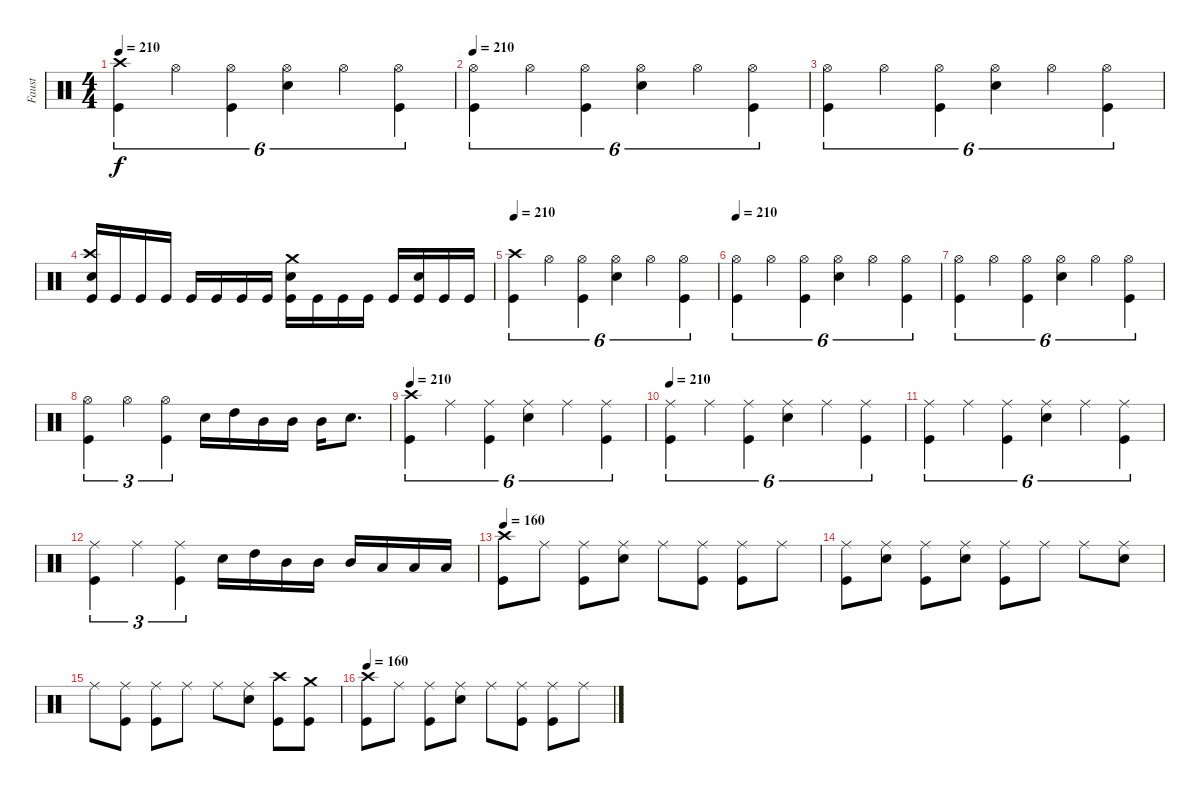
\track ("Faust" "Faust") {instrument percussion}
\staff {score}
\articulation defaults
\ts (4 4)
\tempo 210
\clef neutral
\ks c
("Kick (hit)" "Crash high (hit)").4{tu (6 4) dy f} "Hi-Hat (open)".4{tu (6 4)} ("Kick (hit)" "Hi-Hat (open)").4{tu (6 4)} ("Snare (hit) 2" "Hi-Hat (open)").4{tu (6 4)} "Hi-Hat (open)".4{tu (6 4)} ("Kick (hit)" "Hi-Hat (open)").4{tu (6 4)} |
\tempo 210
("Kick (hit)" "Hi-Hat (open)").4{tu (6 4)} "Hi-Hat (open)".4{tu (6 4)} ("Kick (hit)" "Hi-Hat (open)").4{tu (6 4)} ("Snare (hit) 2" "Hi-Hat (open)").4{tu (6 4)} "Hi-Hat (open)".4{tu (6 4)} ("Kick (hit)" "Hi-Hat (open)").4{tu (6 4)} |
("Kick (hit)" "Hi-Hat (open)").4{tu (6 4)} "Hi-Hat (open)".4{tu (6 4)} ("Kick (hit)" "Hi-Hat (open)").4{tu (6 4)} ("Snare (hit) 2" "Hi-Hat (open)").4{tu (6 4)} "Hi-Hat (open)".4{tu (6 4)} ("Kick (hit)" "Hi-Hat (open)").4{tu (6 4)} |
("Kick (hit)" "Snare (hit) 2" "Crash high (hit)").16 "Kick (hit)".16 "Kick (hit)".16 "Kick (hit)".16 "Kick (hit)".16 "Kick (hit)".16 "Kick (hit)".16 "Kick (hit)".16 ("Kick (hit)" "Snare (hit) 2" "Crash medium (hit)").16 "Kick (hit)".16 "Kick (hit)".16 "Kick (hit)".16 "Kick (hit)".16 ("Kick (hit)" "Snare (hit) 2").16 "Kick (hit)".16 "Kick (hit)".16 |
\tempo 210
("Kick (hit)" "Crash high (hit)").4{tu (6 4)} "Hi-Hat (open)".4{tu (6 4)} ("Kick (hit)" "Hi-Hat (open)").4{tu (6 4)} ("Snare (hit) 2" "Hi-Hat (open)").4{tu (6 4)} "Hi-Hat (open)".4{tu (6 4)} ("Kick (hit)" "Hi-Hat (open)").4{tu (6 4)} |
\tempo 210
("Kick (hit)" "Hi-Hat (open)").4{tu (6 4)} "Hi-Hat (open)".4{tu (6 4)} ("Kick (hit)" "Hi-Hat (open)").4{tu (6 4)} ("Snare (hit) 2" "Hi-Hat (open)").4{tu (6 4)} "Hi-Hat (open)".4{tu (6 4)} ("Kick (hit)" "Hi-Hat (open)").4{tu (6 4)} |
("Kick (hit)" "Hi-Hat (open)").4{tu (6 4)} "Hi-Hat (open)".4{tu (6 4)} ("Kick (hit)" "Hi-Hat (open)").4{tu (6 4)} ("Snare (hit) 2" "Hi-Hat (open)").4{tu (6 4)} "Hi-Hat (open)".4{tu (6 4)} ("Kick (hit)" "Hi-Hat (open)").4{tu (6 4)} |
("Kick (hit)" "Hi-Hat (open)").4{tu (3 2)} "Hi-Hat (open)".4{tu (3 2)} ("Kick (hit)" "Hi-Hat (open)").4{tu (3 2)} "Snare (hit) 2".16 "High Tom (hit)".16 "Mid Tom (hit)".16 "Mid Tom (hit)".16 "Mid Tom (hit)".16 "Snare (hit) 2".8{d} |
\tempo 210
("Kick (hit)" "Crash high (hit)").4{tu (6 4)} "Ride (middle)".4{tu (6 4)} ("Kick (hit)" "Ride (middle)").4{tu (6 4)} ("Snare (hit) 2" "Ride (middle)").4{tu (6 4)} "Ride (middle)".4{tu (6 4)} ("Kick (hit)" "Ride (middle)").4{tu (6 4)} |
\tempo 210
("Kick (hit)" "Ride (middle)").4{tu (6 4)} "Ride (middle)".4{tu (6 4)} ("Kick (hit)" "Ride (middle)").4{tu (6 4)} ("Snare (hit) 2" "Ride (middle)").4{tu (6 4)} "Ride (middle)".4{tu (6 4)} ("Kick (hit)" "Ride (middle)").4{tu (6 4)} |
("Kick (hit)" "Ride (middle)").4{tu (6 4)} "Ride (middle)".4{tu (6 4)} ("Kick (hit)" "Ride (middle)").4{tu (6 4)} ("Snare (hit) 2" "Ride (middle)").4{tu (6 4)} "Ride (middle)".4{tu (6 4)} ("Kick (hit)" "Ride (middle)").4{tu (6 4)} |
("Kick (hit)" "Ride (middle)").4{tu (3 2)} "Ride (middle)".4{tu (3 2)} ("Kick (hit)" "Ride (middle)").4{tu (3 2)} "Snare (hit) 2".16 "High Tom (hit)".16 "Mid Tom (hit)".16 "Mid Tom (hit)".16 "Mid Tom (hit)".16 "Low Tom (hit)".16 "Low Tom (hit)".16 "Low Tom (hit)".16 |
\tempo 160
("Kick (hit)" "Crash high (hit)").8 "Ride (middle)".8 ("Kick (hit)" "Ride (middle)").8 ("Snare (hit) 2" "Ride (middle)").8 "Ride (middle)".8 ("Kick (hit)" "Ride (middle)").8 ("Kick (hit)" "Ride (middle)").8 "Ride (middle)".8 |
("Kick (hit)" "Ride (middle)").8 ("Snare (hit) 2" "Ride (middle)").8 ("Kick (hit)" "Ride (middle)").8 ("Snare (hit) 2" "Ride (middle)").8 ("Kick (hit)" "Ride (middle)").8 "Ride (middle)".8 "Ride (middle)".8 ("Snare (hit) 2" "Ride (middle)").8 |
"Ride (middle)".8 ("Kick (hit)" "Ride (middle)").8 ("Kick (hit)" "Ride (middle)").8 "Ride (middle)".8 "Ride (middle)".8 ("Snare (hit) 2" "Ride (middle)").8 ("Kick (hit)" "Crash high (hit)").8 ("Kick (hit)" "Crash medium (hit)").8 |
\tempo 170
\tempo 160
("Kick (hit)" "Crash high (hit)").8 "Ride (middle)".8 ("Kick (hit)" "Ride (middle)").8 ("Snare (hit) 2" "Ride (middle)").8 "Ride (middle)".8 ("Kick (hit)" "Ride (middle)").8 ("Kick (hit)" "Ride (middle)").8 "Ride (middle)".8
